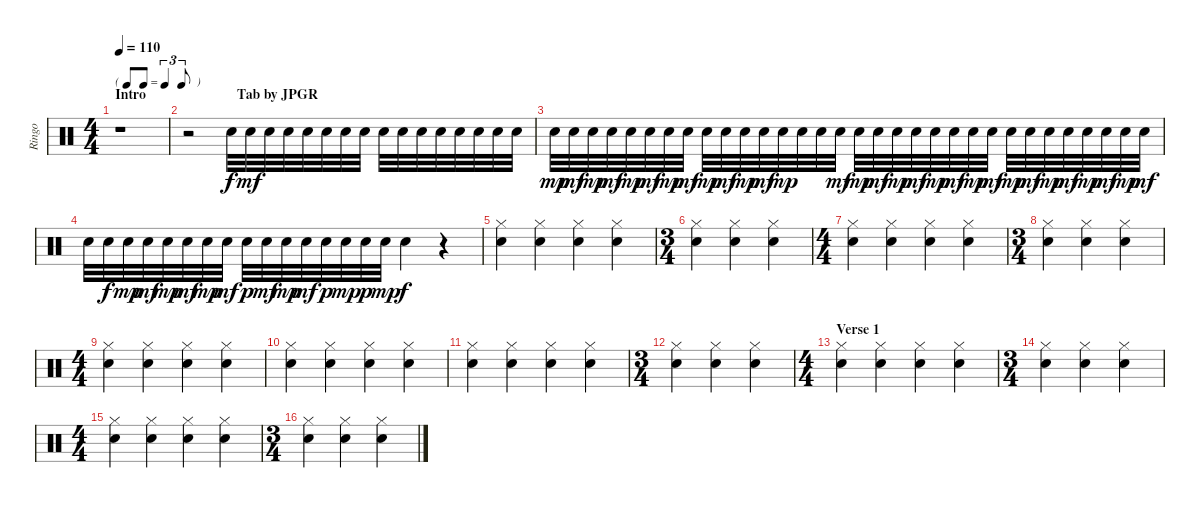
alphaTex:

\track ("Ringo" "Ringo") {instrument percussion}
\staff {score}
\articulation defaults
\ts (4 4)
\tf triplet8th
\section ("" "Intro                          Tab by JPGR")
\tempo 110
\clef neutral
\ks c
r.1{dy f} |
r.2 "Snare (hit) 2".32{volume 9} "Snare (hit) 2".32{dy mf} "Snare (hit) 2".32 "Snare (hit) 2".32 "Snare (hit) 2".32 "Snare (hit) 2".32 "Snare (hit) 2".32 "Snare (hit) 2".32 "Snare (hit) 2".32 "Snare (hit) 2".32 "Snare (hit) 2".32 "Snare (hit) 2".32 "Snare (hit) 2".32 "Snare (hit) 2".32 "Snare (hit) 2".32 "Snare (hit) 2".32 |
"Snare (hit) 2".32{dy mp} "Snare (hit) 2".32{dy mf} "Snare (hit) 2".32{dy mp} "Snare (hit) 2".32{dy mf} "Snare (hit) 2".32{dy mp} "Snare (hit) 2".32{dy mf} "Snare (hit) 2".32{dy mp} "Snare (hit) 2".32{dy mf} "Snare (hit) 2".32{dy mp} "Snare (hit) 2".32{dy mf} "Snare (hit) 2".32{dy mp} "Snare (hit) 2".32{dy mf} "Snare (hit) 2".32{dy mp} "Snare (hit) 2".32 "Snare (hit) 2".32 "Snare (hit) 2".32{dy mf} "Snare (hit) 2".32{dy mp} "Snare (hit) 2".32{dy mf} "Snare (hit) 2".32{dy mp} "Snare (hit) 2".32{dy mf} "Snare (hit) 2".32{dy mp} "Snare (hit) 2".32{dy mf} "Snare (hit) 2".32{dy mp} "Snare (hit) 2".32{dy mf} "Snare (hit) 2".32{dy mp} "Snare (hit) 2".32{dy mf} "Snare (hit) 2".32{dy mp} "Snare (hit) 2".32{dy mf} "Snare (hit) 2".32{dy mp} "Snare (hit) 2".32{dy mf} "Snare (hit) 2".32{dy mp} "Snare (hit) 2".32{dy mf} |
"Snare (hit) 2".32 "Snare (hit) 2".32{dy f} "Snare (hit) 2".32{dy mp} "Snare (hit) 2".32{dy mf} "Snare (hit) 2".32{dy mp} "Snare (hit) 2".32{dy mf} "Snare (hit) 2".32{dy mp} "Snare (hit) 2".32{dy mf} "Snare (hit) 2".32{dy p} "Snare (hit) 2".32{dy mf} "Snare (hit) 2".32{dy mp} "Snare (hit) 2".32{dy mf} "Snare (hit) 2".32{dy p} "Snare (hit) 2".32{dy mp} "Snare (hit) 2".32{dy p} "Snare (hit) 2".32{dy mp} "Snare (hit) 2".4{dy f} r.4 |
("Hi-Hat (closed)" "Snare (hit) 2").4{volume 13} ("Hi-Hat (closed)" "Snare (hit) 2").4 ("Hi-Hat (closed)" "Snare (hit) 2").4 ("Hi-Hat (closed)" "Snare (hit) 2").4 |
\ts (3 4)
("Hi-Hat (closed)" "Snare (hit) 2").4 ("Hi-Hat (closed)" "Snare (hit) 2").4 ("Hi-Hat (closed)" "Snare (hit) 2").4 |
\ts (4 4)
("Hi-Hat (closed)" "Snare (hit) 2").4 ("Hi-Hat (closed)" "Snare (hit) 2").4 ("Hi-Hat (closed)" "Snare (hit) 2").4 ("Hi-Hat (closed)" "Snare (hit) 2").4 |
\ts (3 4)
("Hi-Hat (closed)" "Snare (hit) 2").4 ("Hi-Hat (closed)" "Snare (hit) 2").4 ("Hi-Hat (closed)" "Snare (hit) 2").4 |
\ts (4 4)
("Hi-Hat (closed)" "Snare (hit) 2").4 ("Hi-Hat (closed)" "Snare (hit) 2").4 ("Hi-Hat (closed)" "Snare (hit) 2").4 ("Hi-Hat (closed)" "Snare (hit) 2").4 |
("Hi-Hat (closed)" "Snare (hit) 2").4 ("Hi-Hat (closed)" "Snare (hit) 2").4 ("Hi-Hat (closed)" "Snare (hit) 2").4 ("Hi-Hat (closed)" "Snare (hit) 2").4 |
("Hi-Hat (closed)" "Snare (hit) 2").4 ("Hi-Hat (closed)" "Snare (hit) 2").4 ("Hi-Hat (closed)" "Snare (hit) 2").4 ("Hi-Hat (closed)" "Snare (hit) 2").4 |
\ts (3 4)
("Hi-Hat (closed)" "Snare (hit) 2").4 ("Hi-Hat (closed)" "Snare (hit) 2").4 ("Hi-Hat (closed)" "Snare (hit) 2").4 |
\ts (4 4)
\section ("" "Verse 1")
("Hi-Hat (closed)" "Snare (hit) 2").4 ("Hi-Hat (closed)" "Snare (hit) 2").4 ("Hi-Hat (closed)" "Snare (hit) 2").4 ("Hi-Hat (closed)" "Snare (hit) 2").4 |
\ts (3 4)
("Hi-Hat (closed)" "Snare (hit) 2").4 ("Hi-Hat (closed)" "Snare (hit) 2").4 ("Hi-Hat (closed)" "Snare (hit) 2").4 |
\ts (4 4)
("Hi-Hat (closed)" "Snare (hit) 2").4 ("Hi-Hat (closed)" "Snare (hit) 2").4 ("Hi-Hat (closed)" "Snare (hit) 2").4 ("Hi-Hat (closed)" "Snare (hit) 2").4 |
\ts (3 4)
("Hi-Hat (closed)" "Snare (hit) 2").4 ("Hi-Hat (closed)" "Snare (hit) 2").4 ("Hi-Hat (closed)" "Snare (hit) 2").4
